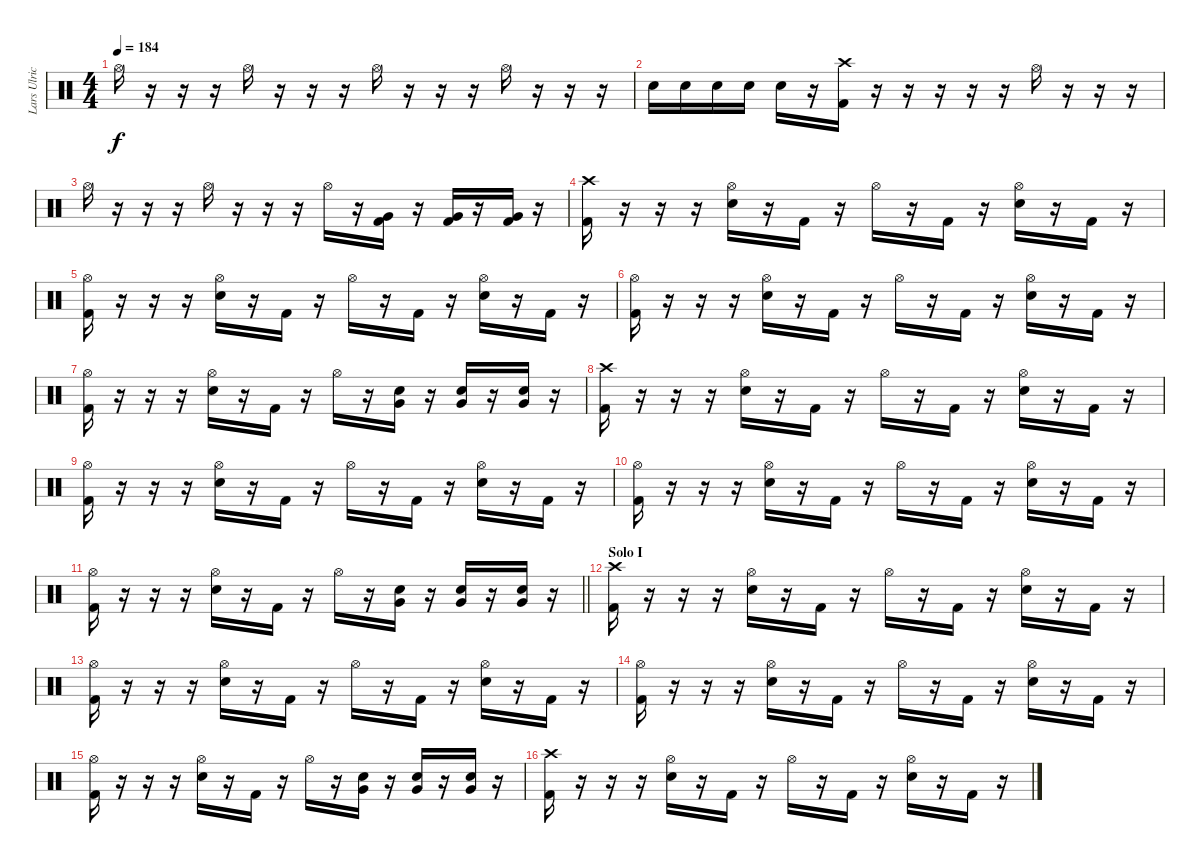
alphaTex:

\track ("Lars Ulrich" "Lars Ulric") {instrument percussion}
\staff {score}
\articulation defaults
\ts (4 4)
\tempo 184
\clef neutral
\ks c "Hi-Hat (open)".16{dy f}
r.16 r.16 r.16 "Hi-Hat (open)".16 r.16 r.16 r.16 "Hi-Hat (open)".16 r.16 r.16 r.16 "Hi-Hat (open)".16 r.16 r.16 r.16 |
"Electric Snare (hit)".16 "Electric Snare (hit)".16 "Electric Snare (hit)".16 "Electric Snare (hit)".16 "Electric Snare (hit)".16 r.16 ("Crash high (hit)" "Kick (hit) 2").16 r.16 r.16 r.16 r.16 r.16 "Hi-Hat (open)".16 r.16 r.16 r.16 |
"Hi-Hat (open)".16 r.16 r.16 r.16 "Hi-Hat (open)".16 r.16 r.16 r.16 "Hi-Hat (open)".16 r.16 ("Very Low Tom (hit)" "Kick (hit) 2").16 r.16 ("Very Low Tom (hit)" "Kick (hit) 2").16 r.16 ("Very Low Tom (hit)" "Kick (hit) 2").16 r.16 |
("Crash high (hit)" "Kick (hit) 2").16 r.16 r.16 r.16 ("Electric Snare (hit)" "Hi-Hat (open)").16 r.16 "Kick (hit) 2".16 r.16 "Hi-Hat (open)".16 r.16 "Kick (hit) 2".16 r.16 ("Electric Snare (hit)" "Hi-Hat (open)").16 r.16 "Kick (hit) 2".16 r.16 |
("Hi-Hat (open)" "Kick (hit) 2").16 r.16 r.16 r.16 ("Electric Snare (hit)" "Hi-Hat (open)").16 r.16 "Kick (hit) 2".16 r.16 "Hi-Hat (open)".16 r.16 "Kick (hit) 2".16 r.16 ("Electric Snare (hit)" "Hi-Hat (open)").16 r.16 "Kick (hit) 2".16 r.16 |
("Hi-Hat (open)" "Kick (hit) 2").16 r.16 r.16 r.16 ("Electric Snare (hit)" "Hi-Hat (open)").16 r.16 "Kick (hit) 2".16 r.16 "Hi-Hat (open)".16 r.16 "Kick (hit) 2".16 r.16 ("Electric Snare (hit)" "Hi-Hat (open)").16 r.16 "Kick (hit) 2".16 r.16 |
("Hi-Hat (open)" "Kick (hit) 2").16 r.16 r.16 r.16 ("Electric Snare (hit)" "Hi-Hat (open)").16 r.16 "Kick (hit) 2".16 r.16 "Hi-Hat (open)".16 r.16 ("Electric Snare (hit)" "Very Low Tom (hit)").16 r.16 ("Electric Snare (hit)" "Very Low Tom (hit)").16 r.16 ("Electric Snare (hit)" "Very Low Tom (hit)").16 r.16 |
("Crash high (hit)" "Kick (hit) 2").16 r.16 r.16 r.16 ("Electric Snare (hit)" "Hi-Hat (open)").16 r.16 "Kick (hit) 2".16 r.16 "Hi-Hat (open)".16 r.16 "Kick (hit) 2".16 r.16 ("Electric Snare (hit)" "Hi-Hat (open)").16 r.16 "Kick (hit) 2".16 r.16 |
("Hi-Hat (open)" "Kick (hit) 2").16 r.16 r.16 r.16 ("Electric Snare (hit)" "Hi-Hat (open)").16 r.16 "Kick (hit) 2".16 r.16 "Hi-Hat (open)".16 r.16 "Kick (hit) 2".16 r.16 ("Electric Snare (hit)" "Hi-Hat (open)").16 r.16 "Kick (hit) 2".16 r.16 |
("Hi-Hat (open)" "Kick (hit) 2").16 r.16 r.16 r.16 ("Electric Snare (hit)" "Hi-Hat (open)").16 r.16 "Kick (hit) 2".16 r.16 "Hi-Hat (open)".16 r.16 "Kick (hit) 2".16 r.16 ("Electric Snare (hit)" "Hi-Hat (open)").16 r.16 "Kick (hit) 2".16 r.16 |
\barLineRight lightlight
("Hi-Hat (open)" "Kick (hit) 2").16 r.16 r.16 r.16 ("Electric Snare (hit)" "Hi-Hat (open)").16 r.16 "Kick (hit) 2".16 r.16 "Hi-Hat (open)".16 r.16 ("Electric Snare (hit)" "Very Low Tom (hit)").16 r.16 ("Electric Snare (hit)" "Very Low Tom (hit)").16 r.16 ("Electric Snare (hit)" "Very Low Tom (hit)").16 r.16 |
\section ("" "Solo I")
("Crash high (hit)" "Kick (hit) 2").16 r.16 r.16 r.16 ("Electric Snare (hit)" "Hi-Hat (open)").16 r.16 "Kick (hit) 2".16 r.16 "Hi-Hat (open)".16 r.16 "Kick (hit) 2".16 r.16 ("Electric Snare (hit)" "Hi-Hat (open)").16 r.16 "Kick (hit) 2".16 r.16 |
("Hi-Hat (open)" "Kick (hit) 2").16 r.16 r.16 r.16 ("Electric Snare (hit)" "Hi-Hat (open)").16 r.16 "Kick (hit) 2".16 r.16 "Hi-Hat (open)".16 r.16 "Kick (hit) 2".16 r.16 ("Electric Snare (hit)" "Hi-Hat (open)").16 r.16 "Kick (hit) 2".16 r.16 |
("Hi-Hat (open)" "Kick (hit) 2").16 r.16 r.16 r.16 ("Electric Snare (hit)" "Hi-Hat (open)").16 r.16 "Kick (hit) 2".16 r.16 "Hi-Hat (open)".16 r.16 "Kick (hit) 2".16 r.16 ("Electric Snare (hit)" "Hi-Hat (open)").16 r.16 "Kick (hit) 2".16 r.16 |
("Hi-Hat (open)" "Kick (hit) 2").16 r.16 r.16 r.16 ("Electric Snare (hit)" "Hi-Hat (open)").16 r.16 "Kick (hit) 2".16 r.16 "Hi-Hat (open)".16 r.16 ("Electric Snare (hit)" "Very Low Tom (hit)").16 r.16 ("Electric Snare (hit)" "Very Low Tom (hit)").16 r.16 ("Electric Snare (hit)" "Very Low Tom (hit)").16 r.16 |
("Crash high (hit)" "Kick (hit) 2").16 r.16 r.16 r.16 ("Electric Snare (hit)" "Hi-Hat (open)").16 r.16 "Kick (hit) 2".16 r.16 "Hi-Hat (open)".16 r.16 "Kick (hit) 2".16 r.16 ("Electric Snare (hit)" "Hi-Hat (open)").16 r.16 "Kick (hit) 2".16 r.16
